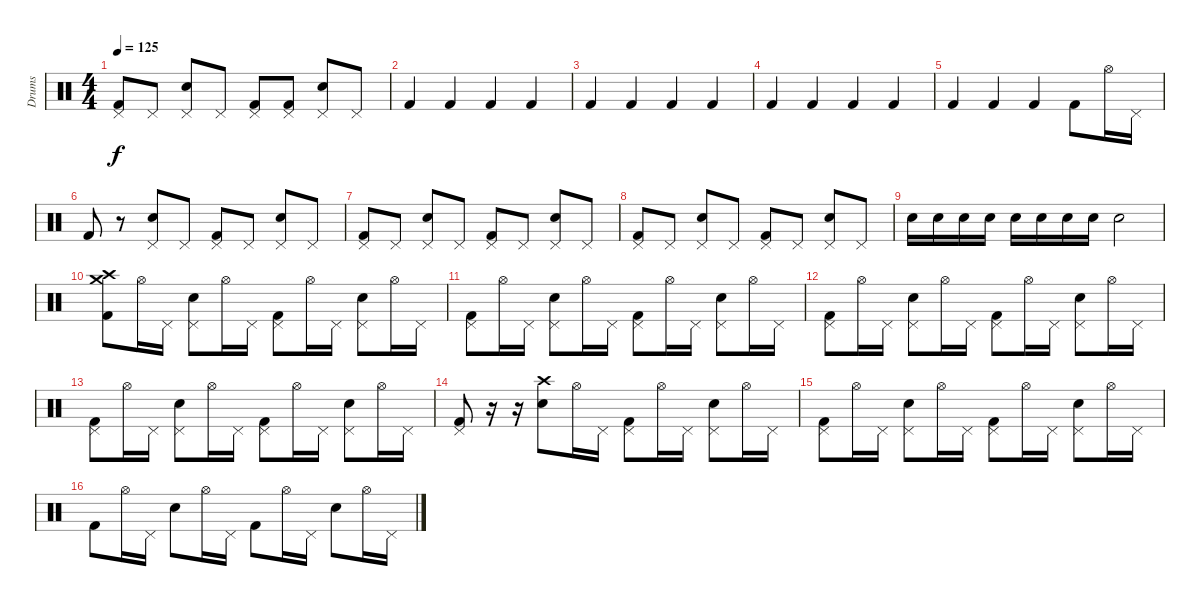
\track ("Drums" "Drums") {instrument percussion}
\staff {score}
\articulation defaults
\ts (4 4)
\tempo 125
\clef neutral
\ks c
("Pedal Hi-Hat (hit)" "Kick (hit) 2").8{dy f} "Pedal Hi-Hat (hit)".8 ("Pedal Hi-Hat (hit)" "Snare (hit) 2").8 "Pedal Hi-Hat (hit)".8 ("Pedal Hi-Hat (hit)" "Kick (hit) 2").8 ("Pedal Hi-Hat (hit)" "Kick (hit) 2").8 ("Pedal Hi-Hat (hit)" "Snare (hit) 2").8 "Pedal Hi-Hat (hit)".8 |
"Kick (hit) 2".4 "Kick (hit) 2".4 "Kick (hit) 2".4 "Kick (hit) 2".4 |
"Kick (hit) 2".4 "Kick (hit) 2".4 "Kick (hit) 2".4 "Kick (hit) 2".4 |
"Kick (hit) 2".4 "Kick (hit) 2".4 "Kick (hit) 2".4 "Kick (hit) 2".4 |
"Kick (hit) 2".4 "Kick (hit) 2".4 "Kick (hit) 2".4 "Kick (hit) 2".8 "Hi-Hat (open)".16 "Pedal Hi-Hat (hit)".16 |
"Kick (hit) 2".8 r.8 ("Pedal Hi-Hat (hit)" "Snare (hit) 2").8 "Pedal Hi-Hat (hit)".8 ("Pedal Hi-Hat (hit)" "Kick (hit) 2").8 "Pedal Hi-Hat (hit)".8 ("Pedal Hi-Hat (hit)" "Snare (hit) 2").8 "Pedal Hi-Hat (hit)".8 |
("Pedal Hi-Hat (hit)" "Kick (hit) 2").8 "Pedal Hi-Hat (hit)".8 ("Pedal Hi-Hat (hit)" "Snare (hit) 2").8 "Pedal Hi-Hat (hit)".8 ("Pedal Hi-Hat (hit)" "Kick (hit) 2").8 "Pedal Hi-Hat (hit)".8 ("Pedal Hi-Hat (hit)" "Snare (hit) 2").8 "Pedal Hi-Hat (hit)".8 |
("Pedal Hi-Hat (hit)" "Kick (hit) 2").8 "Pedal Hi-Hat (hit)".8 ("Pedal Hi-Hat (hit)" "Snare (hit) 2").8 "Pedal Hi-Hat (hit)".8 ("Pedal Hi-Hat (hit)" "Kick (hit) 2").8 "Pedal Hi-Hat (hit)".8 ("Pedal Hi-Hat (hit)" "Snare (hit) 2").8 "Pedal Hi-Hat (hit)".8 |
"Snare (hit) 2".16 "Snare (hit) 2".16 "Snare (hit) 2".16 "Snare (hit) 2".16 "Snare (hit) 2".16 "Snare (hit) 2".16 "Snare (hit) 2".16 "Snare (hit) 2".16 "Snare (hit) 2".2 |
("Crash high (hit)" "Crash medium (hit)" "Kick (hit) 2").8 "Hi-Hat (open)".16 "Pedal Hi-Hat (hit)".16 ("Pedal Hi-Hat (hit)" "Snare (hit) 2").8 "Hi-Hat (open)".16 "Pedal Hi-Hat (hit)".16 ("Pedal Hi-Hat (hit)" "Kick (hit) 2").8 "Hi-Hat (open)".16 "Pedal Hi-Hat (hit)".16 ("Pedal Hi-Hat (hit)" "Snare (hit) 2").8 "Hi-Hat (open)".16 "Pedal Hi-Hat (hit)".16 |
("Pedal Hi-Hat (hit)" "Kick (hit) 2").8 "Hi-Hat (open)".16 "Pedal Hi-Hat (hit)".16 ("Pedal Hi-Hat (hit)" "Snare (hit) 2").8 "Hi-Hat (open)".16 "Pedal Hi-Hat (hit)".16 ("Pedal Hi-Hat (hit)" "Kick (hit) 2").8 "Hi-Hat (open)".16 "Pedal Hi-Hat (hit)".16 ("Pedal Hi-Hat (hit)" "Snare (hit) 2").8 "Hi-Hat (open)".16 "Pedal Hi-Hat (hit)".16 |
("Pedal Hi-Hat (hit)" "Kick (hit) 2").8 "Hi-Hat (open)".16 "Pedal Hi-Hat (hit)".16 ("Pedal Hi-Hat (hit)" "Snare (hit) 2").8 "Hi-Hat (open)".16 "Pedal Hi-Hat (hit)".16 ("Pedal Hi-Hat (hit)" "Kick (hit) 2").8 "Hi-Hat (open)".16 "Pedal Hi-Hat (hit)".16 ("Pedal Hi-Hat (hit)" "Snare (hit) 2").8 "Hi-Hat (open)".16 "Pedal Hi-Hat (hit)".16 |
("Pedal Hi-Hat (hit)" "Kick (hit) 2").8 "Hi-Hat (open)".16 "Pedal Hi-Hat (hit)".16 ("Pedal Hi-Hat (hit)" "Snare (hit) 2").8 "Hi-Hat (open)".16 "Pedal Hi-Hat (hit)".16 ("Pedal Hi-Hat (hit)" "Kick (hit) 2").8 "Hi-Hat (open)".16 "Pedal Hi-Hat (hit)".16 ("Pedal Hi-Hat (hit)" "Snare (hit) 2").8 "Hi-Hat (open)".16 "Pedal Hi-Hat (hit)".16 |
("Pedal Hi-Hat (hit)" "Kick (hit) 2").8 r.16 r.16 ("Crash high (hit)" "Snare (hit) 2").8 "Hi-Hat (open)".16 "Pedal Hi-Hat (hit)".16 ("Pedal Hi-Hat (hit)" "Kick (hit) 2").8 "Hi-Hat (open)".16 "Pedal Hi-Hat (hit)".16 ("Pedal Hi-Hat (hit)" "Snare (hit) 2").8 "Hi-Hat (open)".16 "Pedal Hi-Hat (hit)".16 |
("Pedal Hi-Hat (hit)" "Kick (hit) 2").8 "Hi-Hat (open)".16 "Pedal Hi-Hat (hit)".16 ("Pedal Hi-Hat (hit)" "Snare (hit) 2").8 "Hi-Hat (open)".16 "Pedal Hi-Hat (hit)".16 ("Pedal Hi-Hat (hit)" "Kick (hit) 2").8 "Hi-Hat (open)".16 "Pedal Hi-Hat (hit)".16 ("Pedal Hi-Hat (hit)" "Snare (hit) 2").8 "Hi-Hat (open)".16 "Pedal Hi-Hat (hit)".16 |
"Kick (hit) 2".8 "Hi-Hat (open)".16 "Pedal Hi-Hat (hit)".16 "Snare (hit) 2".8 "Hi-Hat (open)".16 "Pedal Hi-Hat (hit)".16 "Kick (hit) 2".8 "Hi-Hat (open)".16 "Pedal Hi-Hat (hit)".16 "Snare (hit) 2".8 "Hi-Hat (open)".16 "Pedal Hi-Hat (hit)".16
